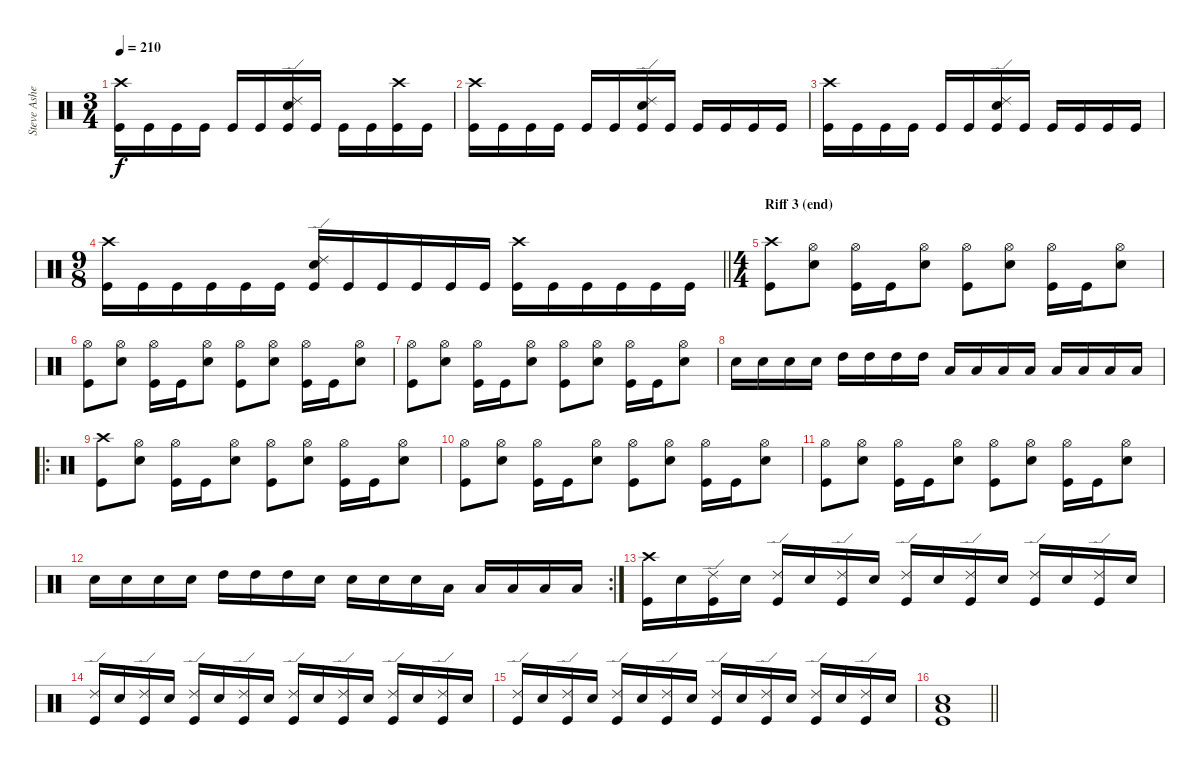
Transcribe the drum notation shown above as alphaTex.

\track ("Steve Asheim" "Steve Ashe") {instrument percussion}
\staff {score}
\articulation defaults
\ts (3 4)
\tempo 210
\clef neutral
\ks c
("Crash high (hit)" "Kick (hit)").16{dy f} "Kick (hit)".16 "Kick (hit)".16 "Kick (hit)".16 "Kick (hit)".16 "Kick (hit)".16 ("Ride (edge) 2" "Snare (hit) 2" "Kick (hit)").16 "Kick (hit)".16 "Kick (hit)".16 "Kick (hit)".16 ("Crash high (hit)" "Kick (hit)").16 "Kick (hit)".16 |
("Crash high (hit)" "Kick (hit)").16 "Kick (hit)".16 "Kick (hit)".16 "Kick (hit)".16 "Kick (hit)".16 "Kick (hit)".16 ("Ride (edge) 2" "Snare (hit) 2" "Kick (hit)").16 "Kick (hit)".16 "Kick (hit)".16 "Kick (hit)".16 "Kick (hit)".16 "Kick (hit)".16 |
("Crash high (hit)" "Kick (hit)").16 "Kick (hit)".16 "Kick (hit)".16 "Kick (hit)".16 "Kick (hit)".16 "Kick (hit)".16 ("Ride (edge) 2" "Snare (hit) 2" "Kick (hit)").16 "Kick (hit)".16 "Kick (hit)".16 "Kick (hit)".16 "Kick (hit)".16 "Kick (hit)".16 |
\ts (9 8)
\barLineRight lightlight
("Crash high (hit)" "Kick (hit)").16 "Kick (hit)".16 "Kick (hit)".16 "Kick (hit)".16 "Kick (hit)".16 "Kick (hit)".16 ("Ride (edge) 2" "Snare (hit) 2" "Kick (hit)").16 "Kick (hit)".16 "Kick (hit)".16 "Kick (hit)".16 "Kick (hit)".16 "Kick (hit)".16 ("Crash high (hit)" "Kick (hit)").16 "Kick (hit)".16 "Kick (hit)".16 "Kick (hit)".16 "Kick (hit)".16 "Kick (hit)".16 |
\ts (4 4)
\section ("" "Riff 3 (end)")
("Crash high (hit)" "Kick (hit)").8 ("Hi-Hat (open)" "Snare (hit) 2").8 ("Hi-Hat (open)" "Kick (hit)").16 "Kick (hit)".16 ("Hi-Hat (open)" "Snare (hit) 2").8 ("Hi-Hat (open)" "Kick (hit)").8 ("Hi-Hat (open)" "Snare (hit) 2").8 ("Hi-Hat (open)" "Kick (hit)").16 "Kick (hit)".16 ("Hi-Hat (open)" "Snare (hit) 2").8 |
("Hi-Hat (open)" "Kick (hit)").8 ("Hi-Hat (open)" "Snare (hit) 2").8 ("Hi-Hat (open)" "Kick (hit)").16 "Kick (hit)".16 ("Hi-Hat (open)" "Snare (hit) 2").8 ("Hi-Hat (open)" "Kick (hit)").8 ("Hi-Hat (open)" "Snare (hit) 2").8 ("Hi-Hat (open)" "Kick (hit)").16 "Kick (hit)".16 ("Hi-Hat (open)" "Snare (hit) 2").8 |
("Hi-Hat (open)" "Kick (hit)").8 ("Hi-Hat (open)" "Snare (hit) 2").8 ("Hi-Hat (open)" "Kick (hit)").16 "Kick (hit)".16 ("Hi-Hat (open)" "Snare (hit) 2").8 ("Hi-Hat (open)" "Kick (hit)").8 ("Hi-Hat (open)" "Snare (hit) 2").8 ("Hi-Hat (open)" "Kick (hit)").16 "Kick (hit)".16 ("Hi-Hat (open)" "Snare (hit) 2").8 |
"Snare (hit) 2".16 "Snare (hit) 2".16 "Snare (hit) 2".16 "Snare (hit) 2".16 "High Tom (hit)".16 "High Tom (hit)".16 "High Tom (hit)".16 "High Tom (hit)".16 "Low Tom (hit)".16 "Low Tom (hit)".16 "Low Tom (hit)".16 "Low Tom (hit)".16 "Low Floor Tom (hit)".16 "Low Floor Tom (hit)".16 "Low Floor Tom (hit)".16 "Low Floor Tom (hit)".16 |
\ro
("Crash high (hit)" "Kick (hit)").8 ("Hi-Hat (open)" "Snare (hit) 2").8 ("Hi-Hat (open)" "Kick (hit)").16 "Kick (hit)".16 ("Hi-Hat (open)" "Snare (hit) 2").8 ("Hi-Hat (open)" "Kick (hit)").8 ("Hi-Hat (open)" "Snare (hit) 2").8 ("Hi-Hat (open)" "Kick (hit)").16 "Kick (hit)".16 ("Hi-Hat (open)" "Snare (hit) 2").8 |
("Hi-Hat (open)" "Kick (hit)").8 ("Hi-Hat (open)" "Snare (hit) 2").8 ("Hi-Hat (open)" "Kick (hit)").16 "Kick (hit)".16 ("Hi-Hat (open)" "Snare (hit) 2").8 ("Hi-Hat (open)" "Kick (hit)").8 ("Hi-Hat (open)" "Snare (hit) 2").8 ("Hi-Hat (open)" "Kick (hit)").16 "Kick (hit)".16 ("Hi-Hat (open)" "Snare (hit) 2").8 |
("Hi-Hat (open)" "Kick (hit)").8 ("Hi-Hat (open)" "Snare (hit) 2").8 ("Hi-Hat (open)" "Kick (hit)").16 "Kick (hit)".16 ("Hi-Hat (open)" "Snare (hit) 2").8 ("Hi-Hat (open)" "Kick (hit)").8 ("Hi-Hat (open)" "Snare (hit) 2").8 ("Hi-Hat (open)" "Kick (hit)").16 "Kick (hit)".16 ("Hi-Hat (open)" "Snare (hit) 2").8 |
\rc 2 "Snare (hit) 2".16 "Snare (hit) 2".16 "Snare (hit) 2".16 "Snare (hit) 2".16 "High Tom (hit)".16 "High Tom (hit)".16 "High Tom (hit)".16 "Snare (hit) 2".16 "Snare (hit) 2".16 "Snare (hit) 2".16 "Snare (hit) 2".16 "Low Tom (hit)".16 "Low Tom (hit)".16 "Low Tom (hit)".16 "Low Floor Tom (hit)".16 "Low Floor Tom (hit)".16
|
("Crash high (hit)" "Kick (hit)").16 "Snare (hit) 2".16 ("Ride (edge) 2" "Kick (hit)").16 "Snare (hit) 2".16 ("Ride (edge) 2" "Kick (hit)").16 "Snare (hit) 2".16 ("Ride (edge) 2" "Kick (hit)").16 "Snare (hit) 2".16 ("Ride (edge) 2" "Kick (hit)").16 "Snare (hit) 2".16 ("Ride (edge) 2" "Kick (hit)").16 "Snare (hit) 2".16 ("Ride (edge) 2" "Kick (hit)").16 "Snare (hit) 2".16 ("Ride (edge) 2" "Kick (hit)").16 "Snare (hit) 2".16 |
("Ride (edge) 2" "Kick (hit)").16 "Snare (hit) 2".16 ("Ride (edge) 2" "Kick (hit)").16 "Snare (hit) 2".16 ("Ride (edge) 2" "Kick (hit)").16 "Snare (hit) 2".16 ("Ride (edge) 2" "Kick (hit)").16 "Snare (hit) 2".16 ("Ride (edge) 2" "Kick (hit)").16 "Snare (hit) 2".16 ("Ride (edge) 2" "Kick (hit)").16 "Snare (hit) 2".16 ("Ride (edge) 2" "Kick (hit)").16 "Snare (hit) 2".16 ("Ride (edge) 2" "Kick (hit)").16 "Snare (hit) 2".16 |
("Ride (edge) 2" "Kick (hit)").16 "Snare (hit) 2".16 ("Ride (edge) 2" "Kick (hit)").16 "Snare (hit) 2".16 ("Ride (edge) 2" "Kick (hit)").16 "Snare (hit) 2".16 ("Ride (edge) 2" "Kick (hit)").16 "Snare (hit) 2".16 ("Ride (edge) 2" "Kick (hit)").16 "Snare (hit) 2".16 ("Ride (edge) 2" "Kick (hit)").16 "Snare (hit) 2".16 ("Ride (edge) 2" "Kick (hit)").16 "Snare (hit) 2".16 ("Ride (edge) 2" "Kick (hit)").16 "Snare (hit) 2".16 |
\barLineRight lightlight
("Low Tom (hit)" "Snare (hit) 2" "Kick (hit)").1
